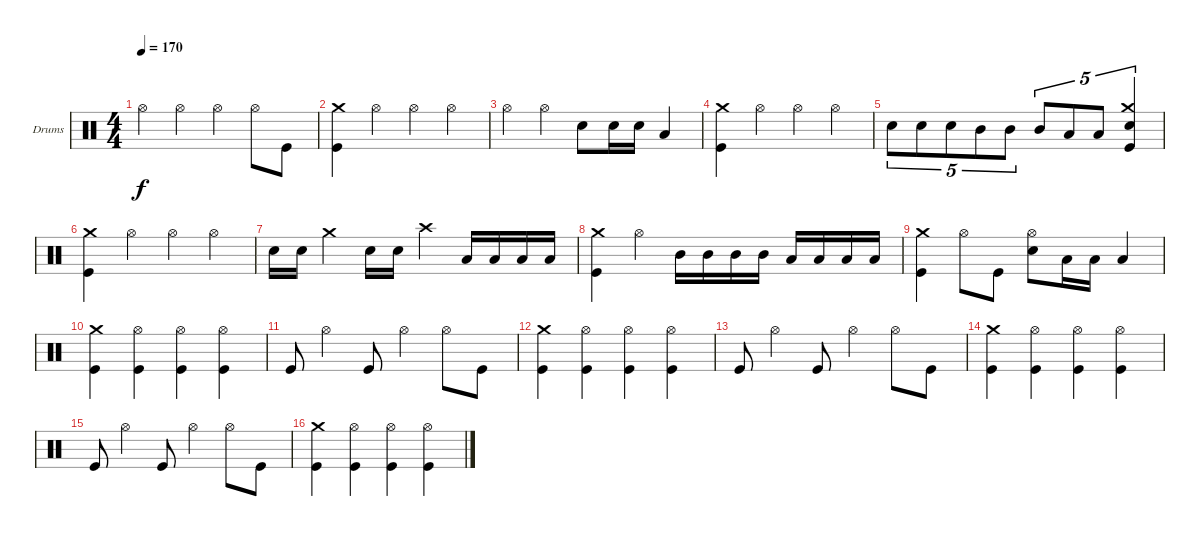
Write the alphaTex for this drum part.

\defaultSystemsLayout 4
\bracketExtendMode groupsimilarinstruments
\firstSystemTrackNameOrientation horizontal
\otherSystemsTrackNameOrientation horizontal
\track ("Drumkit" "Drums") {instrument percussion}
\staff {score}
\articulation defaults
\ts (4 4)
\tempo 170
\clef neutral
\ks c "Hi-Hat (open)".4{dy f} "Hi-Hat (open)".4 "Hi-Hat (open)".4 "Hi-Hat (open)".8 "Kick (hit)".8
|
("Crash medium (hit)" "Kick (hit)").4 "Hi-Hat (open)".4 "Hi-Hat (open)".4 "Hi-Hat (open)".4 |
"Hi-Hat (open)".4 "Hi-Hat (open)".4 "Snare (hit) 2".8 "Snare (hit) 2".16 "Snare (hit) 2".16 "Low Tom (hit)".4 |
("Crash medium (hit)" "Kick (hit)").4 "Hi-Hat (open)".4 "Hi-Hat (open)".4 "Hi-Hat (open)".4 |
"Snare (hit) 2".8{tu (5 4)} "Snare (hit) 2".8{tu (5 4)} "Snare (hit) 2".8{tu (5 4)} "Mid Tom (hit)".8{tu (5 4)} "Mid Tom (hit)".8{tu (5 4)} "Mid Tom (hit)".8{tu (5 4)} "Low Tom (hit)".8{tu (5 4)} "Low Tom (hit)".8{tu (5 4)} ("Crash medium (hit)" "Snare (hit) 2" "Kick (hit)").4{tu (5 4)} |
("Crash medium (hit)" "Kick (hit)").4 "Hi-Hat (open)".4 "Hi-Hat (open)".4 "Hi-Hat (open)".4 |
"Snare (hit) 2".16 "Snare (hit) 2".16 "Crash medium (hit)".4 "Snare (hit) 2".16 "Snare (hit) 2".16 "Crash high (hit)".4 "Low Tom (hit)".16 "Low Tom (hit)".16 "Low Tom (hit)".16 "Low Tom (hit)".16 |
("Crash medium (hit)" "Kick (hit)").4 "Hi-Hat (open)".4 "Mid Tom (hit)".16 "Mid Tom (hit)".16 "Mid Tom (hit)".16 "Mid Tom (hit)".16 "Low Tom (hit)".16 "Low Tom (hit)".16 "Low Tom (hit)".16 "Low Tom (hit)".16 |
("Crash medium (hit)" "Kick (hit)").4 "Hi-Hat (open)".8 "Kick (hit)".8 ("Hi-Hat (open)" "Snare (hit) 2").8 "Low Tom (hit)".16 "Low Tom (hit)".16 "Low Tom (hit)".4 |
("Crash medium (hit)" "Kick (hit)").4 ("Hi-Hat (open)" "Kick (hit)").4 ("Hi-Hat (open)" "Kick (hit)").4 ("Hi-Hat (open)" "Kick (hit)").4 |
"Kick (hit)".8 "Hi-Hat (open)".4 "Kick (hit)".8 "Hi-Hat (open)".4 "Hi-Hat (open)".8 "Kick (hit)".8 |
("Crash medium (hit)" "Kick (hit)").4 ("Hi-Hat (open)" "Kick (hit)").4 ("Hi-Hat (open)" "Kick (hit)").4 ("Hi-Hat (open)" "Kick (hit)").4 |
"Kick (hit)".8 "Hi-Hat (open)".4 "Kick (hit)".8 "Hi-Hat (open)".4 "Hi-Hat (open)".8 "Kick (hit)".8 |
("Crash medium (hit)" "Kick (hit)").4 ("Hi-Hat (open)" "Kick (hit)").4 ("Hi-Hat (open)" "Kick (hit)").4 ("Hi-Hat (open)" "Kick (hit)").4 |
"Kick (hit)".8 "Hi-Hat (open)".4 "Kick (hit)".8 "Hi-Hat (open)".4 "Hi-Hat (open)".8 "Kick (hit)".8 |
("Crash medium (hit)" "Kick (hit)").4 ("Hi-Hat (open)" "Kick (hit)").4 ("Hi-Hat (open)" "Kick (hit)").4 ("Hi-Hat (open)" "Kick (hit)").4
